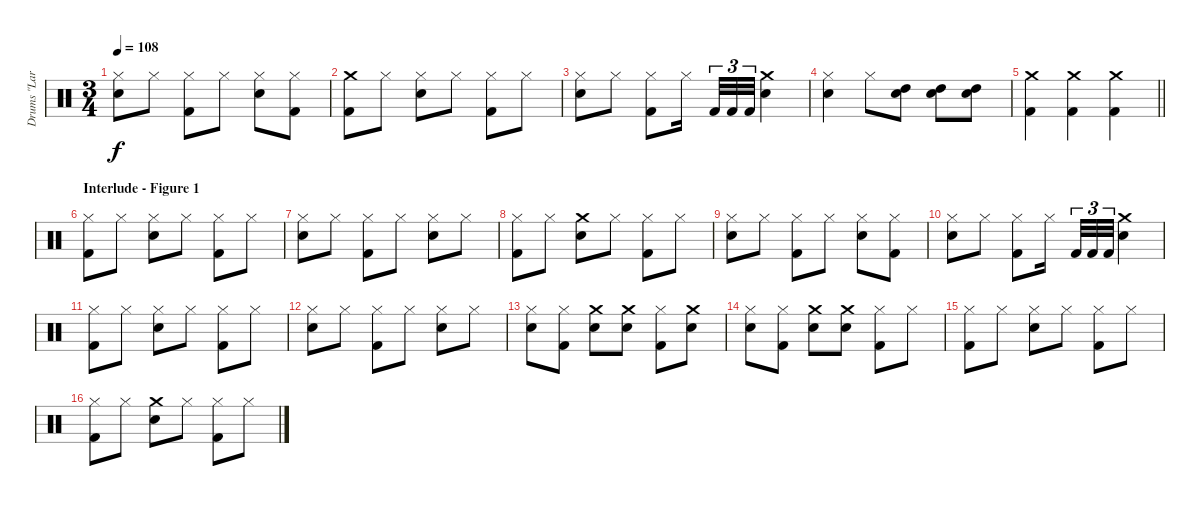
\track ("Drums \"Lars Ulrich\"" "Drums \"Lar") {instrument percussion}
\staff {score}
\articulation defaults
\ts (3 4)
\tempo 108
\clef neutral
\ks c
("Hi-Hat (closed)" "Electric Snare (hit)").8{dy f} "Hi-Hat (closed)".8 ("Hi-Hat (closed)" "Kick (hit) 2").8 "Hi-Hat (closed)".8 ("Hi-Hat (closed)" "Electric Snare (hit)").8 ("Hi-Hat (closed)" "Kick (hit) 2").8 |
("Crash medium (hit)" "Kick (hit) 2").8 "Hi-Hat (closed)".8 ("Hi-Hat (closed)" "Electric Snare (hit)").8 "Hi-Hat (closed)".8 ("Hi-Hat (closed)" "Kick (hit) 2").8 "Hi-Hat (closed)".8 |
("Hi-Hat (closed)" "Electric Snare (hit)").8 "Hi-Hat (closed)".8 ("Hi-Hat (closed)" "Kick (hit) 2").8 "Hi-Hat (closed)".16{beam splitsecondary} "Kick (hit) 2".32{tu (3 2)} "Kick (hit) 2".32{tu (3 2)} "Kick (hit) 2".32{tu (3 2)} ("Crash medium (hit)" "Electric Snare (hit)").4 |
("Hi-Hat (closed)" "Electric Snare (hit)").4 "Hi-Hat (closed)".8 ("High Tom (hit)" "Electric Snare (hit)").8 ("High Tom (hit)" "Electric Snare (hit)").8 ("High Tom (hit)" "Electric Snare (hit)").8 |
\barLineRight lightlight
("Crash medium (hit)" "Kick (hit) 2").4 ("Crash medium (hit)" "Kick (hit) 2").4 ("Crash medium (hit)" "Kick (hit) 2").4 |
\section ("" "Interlude - Figure 1")
("Hi-Hat (closed)" "Kick (hit) 2").8 "Hi-Hat (closed)".8 ("Hi-Hat (closed)" "Electric Snare (hit)").8 "Hi-Hat (closed)".8 ("Hi-Hat (closed)" "Kick (hit) 2").8 "Hi-Hat (closed)".8 |
("Hi-Hat (closed)" "Electric Snare (hit)").8 "Hi-Hat (closed)".8 ("Hi-Hat (closed)" "Kick (hit) 2").8 "Hi-Hat (closed)".8 ("Hi-Hat (closed)" "Electric Snare (hit)").8 "Hi-Hat (closed)".8 |
("Hi-Hat (closed)" "Kick (hit) 2").8 "Hi-Hat (closed)".8 ("Crash medium (hit)" "Electric Snare (hit)").8 "Hi-Hat (closed)".8 ("Hi-Hat (closed)" "Kick (hit) 2").8 "Hi-Hat (closed)".8 |
("Hi-Hat (closed)" "Electric Snare (hit)").8 "Hi-Hat (closed)".8 ("Hi-Hat (closed)" "Kick (hit) 2").8 "Hi-Hat (closed)".8 ("Hi-Hat (closed)" "Electric Snare (hit)").8 ("Hi-Hat (closed)" "Kick (hit) 2").8 |
("Hi-Hat (closed)" "Electric Snare (hit)").8 "Hi-Hat (closed)".8 ("Hi-Hat (closed)" "Kick (hit) 2").8 "Hi-Hat (closed)".16{beam splitsecondary} "Kick (hit) 2".32{tu (3 2)} "Kick (hit) 2".32{tu (3 2)} "Kick (hit) 2".32{tu (3 2)} ("Crash medium (hit)" "Electric Snare (hit)").4 |
("Hi-Hat (closed)" "Kick (hit) 2").8 "Hi-Hat (closed)".8 ("Hi-Hat (closed)" "Electric Snare (hit)").8 "Hi-Hat (closed)".8 ("Hi-Hat (closed)" "Kick (hit) 2").8 "Hi-Hat (closed)".8 |
("Hi-Hat (closed)" "Electric Snare (hit)").8 "Hi-Hat (closed)".8 ("Hi-Hat (closed)" "Kick (hit) 2").8 "Hi-Hat (closed)".8 ("Hi-Hat (closed)" "Electric Snare (hit)").8 "Hi-Hat (closed)".8 |
("Hi-Hat (closed)" "Electric Snare (hit)").8 ("Hi-Hat (closed)" "Kick (hit) 2").8 ("Crash medium (hit)" "Electric Snare (hit)").8 ("Crash medium (hit)" "Electric Snare (hit)").8 ("Hi-Hat (closed)" "Kick (hit) 2").8 ("Crash medium (hit)" "Electric Snare (hit)").8 |
("Hi-Hat (closed)" "Electric Snare (hit)").8 ("Hi-Hat (closed)" "Kick (hit) 2").8 ("Crash medium (hit)" "Electric Snare (hit)").8 ("Crash medium (hit)" "Electric Snare (hit)").8 ("Hi-Hat (closed)" "Kick (hit) 2").8 "Hi-Hat (closed)".8 |
("Hi-Hat (closed)" "Kick (hit) 2").8 "Hi-Hat (closed)".8 ("Hi-Hat (closed)" "Electric Snare (hit)").8 "Hi-Hat (closed)".8 ("Hi-Hat (closed)" "Kick (hit) 2").8 "Hi-Hat (closed)".8 |
("Hi-Hat (closed)" "Kick (hit) 2").8 "Hi-Hat (closed)".8 ("Crash medium (hit)" "Electric Snare (hit)").8 "Hi-Hat (closed)".8 ("Hi-Hat (closed)" "Kick (hit) 2").8 "Hi-Hat (closed)".8
